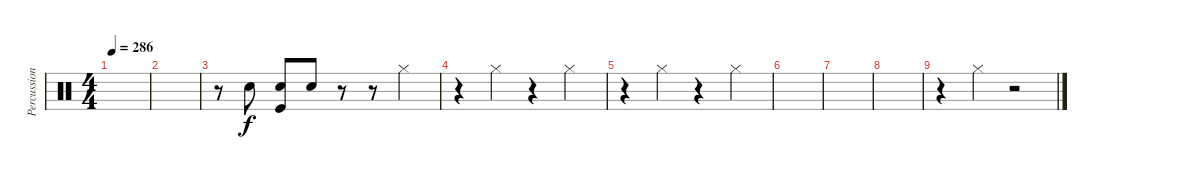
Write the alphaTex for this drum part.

\track ("Percussions" "Percussion") {instrument percussion}
\staff {score}
\articulation defaults
\ts (4 4)
\tempo 286
\clef neutral
\ks c
|
|
r.8 "Electric Snare (hit)".8 ("Electric Snare (hit)" "Kick (hit)").8 "Electric Snare (hit)".8 r.8 r.8 "Hi-Hat (closed)".4 |
r.4 "Hi-Hat (closed)".4 r.4 "Hi-Hat (closed)".4 |
r.4 "Hi-Hat (closed)".4 r.4 "Hi-Hat (closed)".4 |
|
|
|
r.4 "Hi-Hat (closed)".4 r.2
